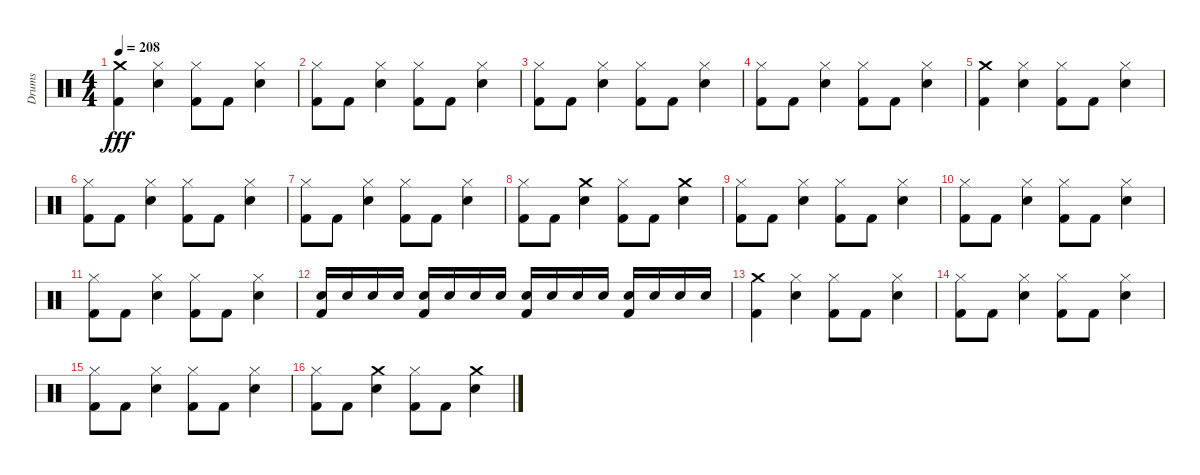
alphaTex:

\track ("Drums" "Drums") {instrument percussion}
\staff {score}
\articulation defaults
\ts (4 4)
\tempo 208
\clef neutral
\ks c
("Kick (hit) 2" "Crash medium (hit)").4{dy fff} ("Hi-Hat (closed)" "Snare (hit) 2").4 ("Kick (hit) 2" "Hi-Hat (closed)").8 "Kick (hit) 2".8 ("Snare (hit) 2" "Hi-Hat (closed)").4 |
("Kick (hit) 2" "Hi-Hat (closed)").8 "Kick (hit) 2".8 ("Snare (hit) 2" "Hi-Hat (closed)").4 ("Kick (hit) 2" "Hi-Hat (closed)").8 "Kick (hit) 2".8 ("Snare (hit) 2" "Hi-Hat (closed)").4 |
("Kick (hit) 2" "Hi-Hat (closed)").8 "Kick (hit) 2".8 ("Snare (hit) 2" "Hi-Hat (closed)").4 ("Kick (hit) 2" "Hi-Hat (closed)").8 "Kick (hit) 2".8 ("Snare (hit) 2" "Hi-Hat (closed)").4 |
("Kick (hit) 2" "Hi-Hat (closed)").8 "Kick (hit) 2".8 ("Snare (hit) 2" "Hi-Hat (closed)").4 ("Kick (hit) 2" "Hi-Hat (closed)").8 "Kick (hit) 2".8 ("Snare (hit) 2" "Hi-Hat (closed)").4 |
("Kick (hit) 2" "Crash medium (hit)").4 ("Hi-Hat (closed)" "Snare (hit) 2").4 ("Kick (hit) 2" "Hi-Hat (closed)").8 "Kick (hit) 2".8 ("Snare (hit) 2" "Hi-Hat (closed)").4 |
("Kick (hit) 2" "Hi-Hat (closed)").8 "Kick (hit) 2".8 ("Snare (hit) 2" "Hi-Hat (closed)").4 ("Kick (hit) 2" "Hi-Hat (closed)").8 "Kick (hit) 2".8 ("Snare (hit) 2" "Hi-Hat (closed)").4 |
("Kick (hit) 2" "Hi-Hat (closed)").8 "Kick (hit) 2".8 ("Snare (hit) 2" "Hi-Hat (closed)").4 ("Kick (hit) 2" "Hi-Hat (closed)").8 "Kick (hit) 2".8 ("Snare (hit) 2" "Hi-Hat (closed)").4 |
("Hi-Hat (closed)" "Kick (hit) 2").8 "Kick (hit) 2".8 ("Snare (hit) 2" "Crash medium (hit)").4 ("Hi-Hat (closed)" "Kick (hit) 2").8 "Kick (hit) 2".8 ("Snare (hit) 2" "Crash medium (hit)").4 |
("Kick (hit) 2" "Hi-Hat (closed)").8 "Kick (hit) 2".8 ("Snare (hit) 2" "Hi-Hat (closed)").4 ("Kick (hit) 2" "Hi-Hat (closed)").8 "Kick (hit) 2".8 ("Snare (hit) 2" "Hi-Hat (closed)").4 |
("Kick (hit) 2" "Hi-Hat (closed)").8 "Kick (hit) 2".8 ("Snare (hit) 2" "Hi-Hat (closed)").4 ("Kick (hit) 2" "Hi-Hat (closed)").8 "Kick (hit) 2".8 ("Snare (hit) 2" "Hi-Hat (closed)").4 |
("Kick (hit) 2" "Hi-Hat (closed)").8 "Kick (hit) 2".8 ("Snare (hit) 2" "Hi-Hat (closed)").4 ("Kick (hit) 2" "Hi-Hat (closed)").8 "Kick (hit) 2".8 ("Snare (hit) 2" "Hi-Hat (closed)").4 |
("Snare (hit) 2" "Kick (hit) 2").16 "Snare (hit) 2".16 "Snare (hit) 2".16 "Snare (hit) 2".16 ("Snare (hit) 2" "Kick (hit) 2").16 "Snare (hit) 2".16 "Snare (hit) 2".16 "Snare (hit) 2".16 ("Snare (hit) 2" "Kick (hit) 2").16 "Snare (hit) 2".16 "Snare (hit) 2".16 "Snare (hit) 2".16 ("Snare (hit) 2" "Kick (hit) 2").16 "Snare (hit) 2".16 "Snare (hit) 2".16 "Snare (hit) 2".16 |
("Kick (hit) 2" "Crash medium (hit)").4 ("Hi-Hat (closed)" "Snare (hit) 2").4 ("Kick (hit) 2" "Hi-Hat (closed)").8 "Kick (hit) 2".8 ("Snare (hit) 2" "Hi-Hat (closed)").4 |
("Kick (hit) 2" "Hi-Hat (closed)").8 "Kick (hit) 2".8 ("Snare (hit) 2" "Hi-Hat (closed)").4 ("Kick (hit) 2" "Hi-Hat (closed)").8 "Kick (hit) 2".8 ("Snare (hit) 2" "Hi-Hat (closed)").4 |
("Kick (hit) 2" "Hi-Hat (closed)").8 "Kick (hit) 2".8 ("Snare (hit) 2" "Hi-Hat (closed)").4 ("Kick (hit) 2" "Hi-Hat (closed)").8 "Kick (hit) 2".8 ("Snare (hit) 2" "Hi-Hat (closed)").4 |
("Kick (hit) 2" "Hi-Hat (closed)").8 "Kick (hit) 2".8 ("Crash medium (hit)" "Snare (hit) 2").4 ("Kick (hit) 2" "Hi-Hat (closed)").8 "Kick (hit) 2".8 ("Crash medium (hit)" "Snare (hit) 2").4
